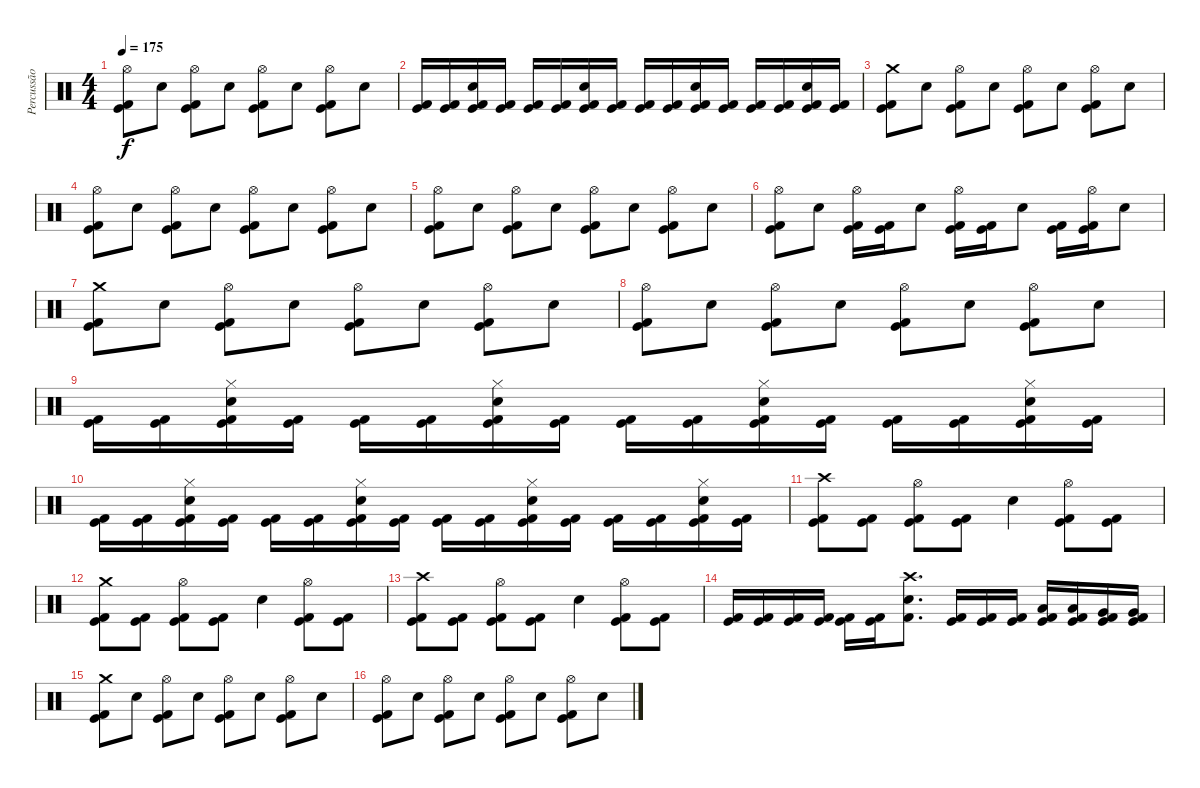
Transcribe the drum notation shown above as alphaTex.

\track ("Percussão" "Percussão") {instrument percussion}
\staff {score}
\articulation defaults
\ts (4 4)
\tempo 175
\clef neutral
\ks c
("Hi-Hat (open)" "Kick (hit) 2" "Kick (hit)").8{dy f} "Electric Snare (hit)".8 ("Hi-Hat (open)" "Kick (hit) 2" "Kick (hit)").8 "Electric Snare (hit)".8 ("Hi-Hat (open)" "Kick (hit) 2" "Kick (hit)").8 "Electric Snare (hit)".8 ("Hi-Hat (open)" "Kick (hit) 2" "Kick (hit)").8 "Electric Snare (hit)".8 |
("Kick (hit)" "Kick (hit) 2").16 ("Kick (hit)" "Kick (hit) 2").16 ("Electric Snare (hit)" "Kick (hit)" "Kick (hit) 2").16 ("Kick (hit)" "Kick (hit) 2").16 ("Kick (hit)" "Kick (hit) 2").16 ("Kick (hit)" "Kick (hit) 2").16 ("Electric Snare (hit)" "Kick (hit)" "Kick (hit) 2").16 ("Kick (hit)" "Kick (hit) 2").16 ("Kick (hit)" "Kick (hit) 2").16 ("Kick (hit)" "Kick (hit) 2").16 ("Electric Snare (hit)" "Kick (hit)" "Kick (hit) 2").16 ("Kick (hit)" "Kick (hit) 2").16 ("Kick (hit)" "Kick (hit) 2").16 ("Kick (hit)" "Kick (hit) 2").16 ("Electric Snare (hit)" "Kick (hit)" "Kick (hit) 2").16 ("Kick (hit)" "Kick (hit) 2").16 |
("Crash medium (hit)" "Kick (hit) 2" "Kick (hit)").8 "Electric Snare (hit)".8 ("Hi-Hat (open)" "Kick (hit) 2" "Kick (hit)").8 "Electric Snare (hit)".8 ("Hi-Hat (open)" "Kick (hit) 2" "Kick (hit)").8 "Electric Snare (hit)".8 ("Hi-Hat (open)" "Kick (hit) 2" "Kick (hit)").8 "Electric Snare (hit)".8 |
("Hi-Hat (open)" "Kick (hit) 2" "Kick (hit)").8 "Electric Snare (hit)".8 ("Hi-Hat (open)" "Kick (hit) 2" "Kick (hit)").8 "Electric Snare (hit)".8 ("Hi-Hat (open)" "Kick (hit) 2" "Kick (hit)").8 "Electric Snare (hit)".8 ("Hi-Hat (open)" "Kick (hit) 2" "Kick (hit)").8 "Electric Snare (hit)".8 |
("Hi-Hat (open)" "Kick (hit) 2" "Kick (hit)").8 "Electric Snare (hit)".8 ("Hi-Hat (open)" "Kick (hit) 2" "Kick (hit)").8 "Electric Snare (hit)".8 ("Hi-Hat (open)" "Kick (hit) 2" "Kick (hit)").8 "Electric Snare (hit)".8 ("Hi-Hat (open)" "Kick (hit) 2" "Kick (hit)").8 "Electric Snare (hit)".8 |
("Hi-Hat (open)" "Kick (hit) 2" "Kick (hit)").8 "Electric Snare (hit)".8 ("Hi-Hat (open)" "Kick (hit) 2" "Kick (hit)").16 ("Kick (hit) 2" "Kick (hit)").16 "Electric Snare (hit)".8 ("Hi-Hat (open)" "Kick (hit) 2" "Kick (hit)").16 ("Kick (hit)" "Kick (hit) 2").16 "Electric Snare (hit)".8 ("Kick (hit)" "Kick (hit) 2").16 ("Hi-Hat (open)" "Kick (hit) 2" "Kick (hit)").16 "Electric Snare (hit)".8 |
("Crash medium (hit)" "Kick (hit) 2" "Kick (hit)").8 "Electric Snare (hit)".8 ("Hi-Hat (open)" "Kick (hit) 2" "Kick (hit)").8 "Electric Snare (hit)".8 ("Hi-Hat (open)" "Kick (hit) 2" "Kick (hit)").8 "Electric Snare (hit)".8 ("Hi-Hat (open)" "Kick (hit) 2" "Kick (hit)").8 "Electric Snare (hit)".8 |
("Hi-Hat (open)" "Kick (hit) 2" "Kick (hit)").8 "Electric Snare (hit)".8 ("Hi-Hat (open)" "Kick (hit) 2" "Kick (hit)").8 "Electric Snare (hit)".8 ("Hi-Hat (open)" "Kick (hit) 2" "Kick (hit)").8 "Electric Snare (hit)".8 ("Hi-Hat (open)" "Kick (hit) 2" "Kick (hit)").8 "Electric Snare (hit)".8 |
("Kick (hit)" "Kick (hit) 2").16 ("Kick (hit)" "Kick (hit) 2").16 ("Hi-Hat (closed)" "Electric Snare (hit)" "Kick (hit)" "Kick (hit) 2").16 ("Kick (hit)" "Kick (hit) 2").16 ("Kick (hit)" "Kick (hit) 2").16 ("Kick (hit)" "Kick (hit) 2").16 ("Hi-Hat (closed)" "Electric Snare (hit)" "Kick (hit)" "Kick (hit) 2").16 ("Kick (hit)" "Kick (hit) 2").16 ("Kick (hit)" "Kick (hit) 2").16 ("Kick (hit)" "Kick (hit) 2").16 ("Hi-Hat (closed)" "Electric Snare (hit)" "Kick (hit)" "Kick (hit) 2").16 ("Kick (hit)" "Kick (hit) 2").16 ("Kick (hit)" "Kick (hit) 2").16 ("Kick (hit)" "Kick (hit) 2").16 ("Hi-Hat (closed)" "Electric Snare (hit)" "Kick (hit)" "Kick (hit) 2").16 ("Kick (hit)" "Kick (hit) 2").16 |
("Kick (hit)" "Kick (hit) 2").16 ("Kick (hit)" "Kick (hit) 2").16 ("Hi-Hat (closed)" "Electric Snare (hit)" "Kick (hit)" "Kick (hit) 2").16 ("Kick (hit)" "Kick (hit) 2").16 ("Kick (hit)" "Kick (hit) 2").16 ("Kick (hit)" "Kick (hit) 2").16 ("Hi-Hat (closed)" "Electric Snare (hit)" "Kick (hit)" "Kick (hit) 2").16 ("Kick (hit)" "Kick (hit) 2").16 ("Kick (hit)" "Kick (hit) 2").16 ("Kick (hit)" "Kick (hit) 2").16 ("Hi-Hat (closed)" "Electric Snare (hit)" "Kick (hit)" "Kick (hit) 2").16 ("Kick (hit)" "Kick (hit) 2").16 ("Kick (hit)" "Kick (hit) 2").16 ("Kick (hit)" "Kick (hit) 2").16 ("Hi-Hat (closed)" "Electric Snare (hit)" "Kick (hit)" "Kick (hit) 2").16 ("Kick (hit)" "Kick (hit) 2").16 |
("Crash high (hit)" "Kick (hit) 2" "Kick (hit)").8 ("Kick (hit) 2" "Kick (hit)").8 ("Hi-Hat (open)" "Kick (hit) 2" "Kick (hit)").8 ("Kick (hit) 2" "Kick (hit)").8 "Electric Snare (hit)".4 ("Hi-Hat (open)" "Kick (hit) 2" "Kick (hit)").8 ("Kick (hit) 2" "Kick (hit)").8 |
("Crash medium (hit)" "Kick (hit) 2" "Kick (hit)").8 ("Kick (hit) 2" "Kick (hit)").8 ("Hi-Hat (open)" "Kick (hit) 2" "Kick (hit)").8 ("Kick (hit) 2" "Kick (hit)").8 "Electric Snare (hit)".4 ("Hi-Hat (open)" "Kick (hit) 2" "Kick (hit)").8 ("Kick (hit) 2" "Kick (hit)").8 |
("Crash high (hit)" "Kick (hit) 2" "Kick (hit)").8 ("Kick (hit) 2" "Kick (hit)").8 ("Hi-Hat (open)" "Kick (hit) 2" "Kick (hit)").8 ("Kick (hit) 2" "Kick (hit)").8 "Electric Snare (hit)".4 ("Hi-Hat (open)" "Kick (hit) 2" "Kick (hit)").8 ("Kick (hit) 2" "Kick (hit)").8 |
("Kick (hit) 2" "Kick (hit)").16 ("Kick (hit) 2" "Kick (hit)").16 ("Kick (hit) 2" "Kick (hit)").16 ("Kick (hit) 2" "Kick (hit)").16 ("Kick (hit) 2" "Kick (hit)").16 ("Kick (hit) 2" "Kick (hit)").16 ("Electric Snare (hit)" "Kick (hit) 2" "Crash high (hit)").8{d} ("Kick (hit) 2" "Kick (hit)").16 ("Kick (hit) 2" "Kick (hit)").16 ("Kick (hit) 2" "Kick (hit)").16 ("Low Tom (hit)" "Kick (hit) 2" "Kick (hit)").16 ("Low Tom (hit)" "Kick (hit) 2" "Kick (hit)").16 ("Very Low Tom (hit)" "Kick (hit) 2" "Kick (hit)").16 ("Very Low Tom (hit)" "Kick (hit) 2" "Kick (hit)").16 |
("Crash medium (hit)" "Kick (hit) 2" "Kick (hit)").8 "Electric Snare (hit)".8 ("Hi-Hat (open)" "Kick (hit) 2" "Kick (hit)").8 "Electric Snare (hit)".8 ("Hi-Hat (open)" "Kick (hit) 2" "Kick (hit)").8 "Electric Snare (hit)".8 ("Hi-Hat (open)" "Kick (hit) 2" "Kick (hit)").8 "Electric Snare (hit)".8 |
("Hi-Hat (open)" "Kick (hit) 2" "Kick (hit)").8 "Electric Snare (hit)".8 ("Hi-Hat (open)" "Kick (hit) 2" "Kick (hit)").8 "Electric Snare (hit)".8 ("Hi-Hat (open)" "Kick (hit) 2" "Kick (hit)").8 "Electric Snare (hit)".8 ("Hi-Hat (open)" "Kick (hit) 2" "Kick (hit)").8 "Electric Snare (hit)".8
